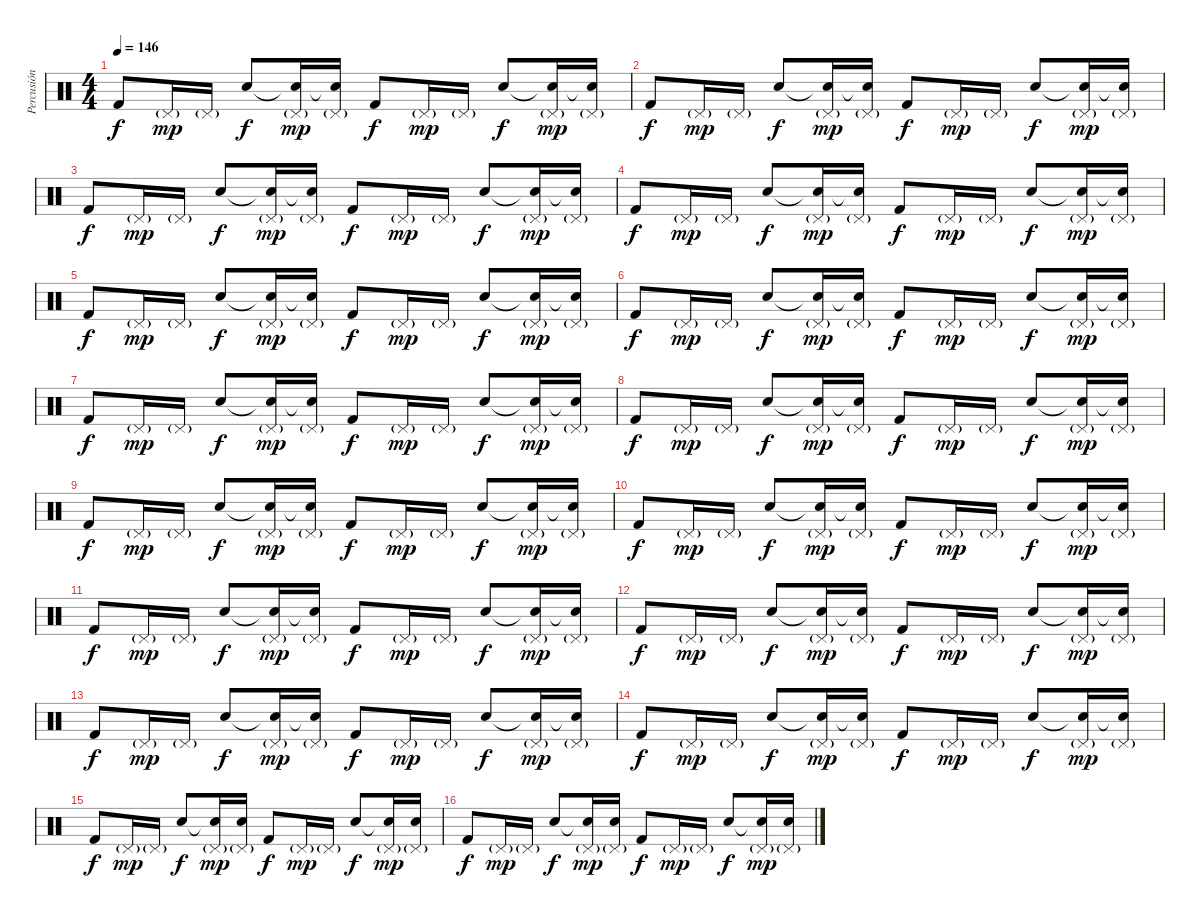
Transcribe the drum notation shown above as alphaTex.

\track ("Percusión" "Percusión") {instrument percussion}
\staff {score}
\articulation defaults
\ts (4 4)
\tempo 146
\clef neutral
\ks c "Kick (hit) 2".8{dy f} "Pedal Hi-Hat (hit)"{g}.16{dy mp} "Pedal Hi-Hat (hit)"{g}.16 "Snare (hit) 2".8{dy f}
("Snare (hit)"{t} "Pedal Hi-Hat (hit)"{g}).16{dy mp} ("Snare (hit)"{t} "Pedal Hi-Hat (hit)"{g}).16 "Kick (hit) 2".8{dy f} "Pedal Hi-Hat (hit)"{g}.16{dy mp} "Pedal Hi-Hat (hit)"{g}.16 "Snare (hit) 2".8{dy f} ("Snare (hit)"{t} "Pedal Hi-Hat (hit)"{g}).16{dy mp} ("Snare (hit)"{t} "Pedal Hi-Hat (hit)"{g}).16 |
"Kick (hit) 2".8{dy f} "Pedal Hi-Hat (hit)"{g}.16{dy mp} "Pedal Hi-Hat (hit)"{g}.16 "Snare (hit) 2".8{dy f} ("Snare (hit)"{t} "Pedal Hi-Hat (hit)"{g}).16{dy mp} ("Snare (hit)"{t} "Pedal Hi-Hat (hit)"{g}).16 "Kick (hit) 2".8{dy f} "Pedal Hi-Hat (hit)"{g}.16{dy mp} "Pedal Hi-Hat (hit)"{g}.16 "Snare (hit) 2".8{dy f} ("Snare (hit)"{t} "Pedal Hi-Hat (hit)"{g}).16{dy mp} ("Snare (hit)"{t} "Pedal Hi-Hat (hit)"{g}).16 |
"Kick (hit) 2".8{dy f} "Pedal Hi-Hat (hit)"{g}.16{dy mp} "Pedal Hi-Hat (hit)"{g}.16 "Snare (hit) 2".8{dy f} ("Snare (hit)"{t} "Pedal Hi-Hat (hit)"{g}).16{dy mp} ("Snare (hit)"{t} "Pedal Hi-Hat (hit)"{g}).16 "Kick (hit) 2".8{dy f} "Pedal Hi-Hat (hit)"{g}.16{dy mp} "Pedal Hi-Hat (hit)"{g}.16 "Snare (hit) 2".8{dy f} ("Snare (hit)"{t} "Pedal Hi-Hat (hit)"{g}).16{dy mp} ("Snare (hit)"{t} "Pedal Hi-Hat (hit)"{g}).16 |
"Kick (hit) 2".8{dy f} "Pedal Hi-Hat (hit)"{g}.16{dy mp} "Pedal Hi-Hat (hit)"{g}.16 "Snare (hit) 2".8{dy f} ("Snare (hit)"{t} "Pedal Hi-Hat (hit)"{g}).16{dy mp} ("Snare (hit)"{t} "Pedal Hi-Hat (hit)"{g}).16 "Kick (hit) 2".8{dy f} "Pedal Hi-Hat (hit)"{g}.16{dy mp} "Pedal Hi-Hat (hit)"{g}.16 "Snare (hit) 2".8{dy f} ("Snare (hit)"{t} "Pedal Hi-Hat (hit)"{g}).16{dy mp} ("Snare (hit)"{t} "Pedal Hi-Hat (hit)"{g}).16 |
"Kick (hit) 2".8{dy f} "Pedal Hi-Hat (hit)"{g}.16{dy mp} "Pedal Hi-Hat (hit)"{g}.16 "Snare (hit) 2".8{dy f} ("Snare (hit)"{t} "Pedal Hi-Hat (hit)"{g}).16{dy mp} ("Snare (hit)"{t} "Pedal Hi-Hat (hit)"{g}).16 "Kick (hit) 2".8{dy f} "Pedal Hi-Hat (hit)"{g}.16{dy mp} "Pedal Hi-Hat (hit)"{g}.16 "Snare (hit) 2".8{dy f} ("Snare (hit)"{t} "Pedal Hi-Hat (hit)"{g}).16{dy mp} ("Snare (hit)"{t} "Pedal Hi-Hat (hit)"{g}).16 |
"Kick (hit) 2".8{dy f} "Pedal Hi-Hat (hit)"{g}.16{dy mp} "Pedal Hi-Hat (hit)"{g}.16 "Snare (hit) 2".8{dy f} ("Snare (hit)"{t} "Pedal Hi-Hat (hit)"{g}).16{dy mp} ("Snare (hit)"{t} "Pedal Hi-Hat (hit)"{g}).16 "Kick (hit) 2".8{dy f} "Pedal Hi-Hat (hit)"{g}.16{dy mp} "Pedal Hi-Hat (hit)"{g}.16 "Snare (hit) 2".8{dy f} ("Snare (hit)"{t} "Pedal Hi-Hat (hit)"{g}).16{dy mp} ("Snare (hit)"{t} "Pedal Hi-Hat (hit)"{g}).16 |
"Kick (hit) 2".8{dy f} "Pedal Hi-Hat (hit)"{g}.16{dy mp} "Pedal Hi-Hat (hit)"{g}.16 "Snare (hit) 2".8{dy f} ("Snare (hit)"{t} "Pedal Hi-Hat (hit)"{g}).16{dy mp} ("Snare (hit)"{t} "Pedal Hi-Hat (hit)"{g}).16 "Kick (hit) 2".8{dy f} "Pedal Hi-Hat (hit)"{g}.16{dy mp} "Pedal Hi-Hat (hit)"{g}.16 "Snare (hit) 2".8{dy f} ("Snare (hit)"{t} "Pedal Hi-Hat (hit)"{g}).16{dy mp} ("Snare (hit)"{t} "Pedal Hi-Hat (hit)"{g}).16 |
"Kick (hit) 2".8{dy f} "Pedal Hi-Hat (hit)"{g}.16{dy mp} "Pedal Hi-Hat (hit)"{g}.16 "Snare (hit) 2".8{dy f} ("Snare (hit)"{t} "Pedal Hi-Hat (hit)"{g}).16{dy mp} ("Snare (hit)"{t} "Pedal Hi-Hat (hit)"{g}).16 "Kick (hit) 2".8{dy f} "Pedal Hi-Hat (hit)"{g}.16{dy mp} "Pedal Hi-Hat (hit)"{g}.16 "Snare (hit) 2".8{dy f} ("Snare (hit)"{t} "Pedal Hi-Hat (hit)"{g}).16{dy mp} ("Snare (hit)"{t} "Pedal Hi-Hat (hit)"{g}).16 |
"Kick (hit) 2".8{dy f} "Pedal Hi-Hat (hit)"{g}.16{dy mp} "Pedal Hi-Hat (hit)"{g}.16 "Snare (hit) 2".8{dy f} ("Snare (hit)"{t} "Pedal Hi-Hat (hit)"{g}).16{dy mp} ("Snare (hit)"{t} "Pedal Hi-Hat (hit)"{g}).16 "Kick (hit) 2".8{dy f} "Pedal Hi-Hat (hit)"{g}.16{dy mp} "Pedal Hi-Hat (hit)"{g}.16 "Snare (hit) 2".8{dy f} ("Snare (hit)"{t} "Pedal Hi-Hat (hit)"{g}).16{dy mp} ("Snare (hit)"{t} "Pedal Hi-Hat (hit)"{g}).16 |
"Kick (hit) 2".8{dy f} "Pedal Hi-Hat (hit)"{g}.16{dy mp} "Pedal Hi-Hat (hit)"{g}.16 "Snare (hit) 2".8{dy f} ("Snare (hit)"{t} "Pedal Hi-Hat (hit)"{g}).16{dy mp} ("Snare (hit)"{t} "Pedal Hi-Hat (hit)"{g}).16 "Kick (hit) 2".8{dy f} "Pedal Hi-Hat (hit)"{g}.16{dy mp} "Pedal Hi-Hat (hit)"{g}.16 "Snare (hit) 2".8{dy f} ("Snare (hit)"{t} "Pedal Hi-Hat (hit)"{g}).16{dy mp} ("Snare (hit)"{t} "Pedal Hi-Hat (hit)"{g}).16 |
"Kick (hit) 2".8{dy f} "Pedal Hi-Hat (hit)"{g}.16{dy mp} "Pedal Hi-Hat (hit)"{g}.16 "Snare (hit) 2".8{dy f} ("Snare (hit)"{t} "Pedal Hi-Hat (hit)"{g}).16{dy mp} ("Snare (hit)"{t} "Pedal Hi-Hat (hit)"{g}).16 "Kick (hit) 2".8{dy f} "Pedal Hi-Hat (hit)"{g}.16{dy mp} "Pedal Hi-Hat (hit)"{g}.16 "Snare (hit) 2".8{dy f} ("Snare (hit)"{t} "Pedal Hi-Hat (hit)"{g}).16{dy mp} ("Snare (hit)"{t} "Pedal Hi-Hat (hit)"{g}).16 |
"Kick (hit) 2".8{dy f} "Pedal Hi-Hat (hit)"{g}.16{dy mp} "Pedal Hi-Hat (hit)"{g}.16 "Snare (hit) 2".8{dy f} ("Snare (hit)"{t} "Pedal Hi-Hat (hit)"{g}).16{dy mp} ("Snare (hit)"{t} "Pedal Hi-Hat (hit)"{g}).16 "Kick (hit) 2".8{dy f} "Pedal Hi-Hat (hit)"{g}.16{dy mp} "Pedal Hi-Hat (hit)"{g}.16 "Snare (hit) 2".8{dy f} ("Snare (hit)"{t} "Pedal Hi-Hat (hit)"{g}).16{dy mp} ("Snare (hit)"{t} "Pedal Hi-Hat (hit)"{g}).16 |
"Kick (hit) 2".8{dy f} "Pedal Hi-Hat (hit)"{g}.16{dy mp} "Pedal Hi-Hat (hit)"{g}.16 "Snare (hit) 2".8{dy f} ("Snare (hit)"{t} "Pedal Hi-Hat (hit)"{g}).16{dy mp} ("Snare (hit)"{t} "Pedal Hi-Hat (hit)"{g}).16 "Kick (hit) 2".8{dy f} "Pedal Hi-Hat (hit)"{g}.16{dy mp} "Pedal Hi-Hat (hit)"{g}.16 "Snare (hit) 2".8{dy f} ("Snare (hit)"{t} "Pedal Hi-Hat (hit)"{g}).16{dy mp} ("Snare (hit)"{t} "Pedal Hi-Hat (hit)"{g}).16 |
"Kick (hit) 2".8{dy f} "Pedal Hi-Hat (hit)"{g}.16{dy mp} "Pedal Hi-Hat (hit)"{g}.16 "Snare (hit) 2".8{dy f} ("Snare (hit)"{t} "Pedal Hi-Hat (hit)"{g}).16{dy mp} ("Snare (hit)"{t} "Pedal Hi-Hat (hit)"{g}).16 "Kick (hit) 2".8{dy f} "Pedal Hi-Hat (hit)"{g}.16{dy mp} "Pedal Hi-Hat (hit)"{g}.16 "Snare (hit) 2".8{dy f} ("Snare (hit)"{t} "Pedal Hi-Hat (hit)"{g}).16{dy mp} ("Snare (hit)"{t} "Pedal Hi-Hat (hit)"{g}).16 |
"Kick (hit) 2".8{dy f} "Pedal Hi-Hat (hit)"{g}.16{dy mp} "Pedal Hi-Hat (hit)"{g}.16 "Snare (hit) 2".8{dy f} ("Snare (hit)"{t} "Pedal Hi-Hat (hit)"{g}).16{dy mp} ("Snare (hit)"{t} "Pedal Hi-Hat (hit)"{g}).16 "Kick (hit) 2".8{dy f} "Pedal Hi-Hat (hit)"{g}.16{dy mp} "Pedal Hi-Hat (hit)"{g}.16 "Snare (hit) 2".8{dy f} ("Snare (hit)"{t} "Pedal Hi-Hat (hit)"{g}).16{dy mp} ("Snare (hit)"{t} "Pedal Hi-Hat (hit)"{g}).16 |
"Kick (hit) 2".8{dy f} "Pedal Hi-Hat (hit)"{g}.16{dy mp} "Pedal Hi-Hat (hit)"{g}.16 "Snare (hit) 2".8{dy f} ("Snare (hit)"{t} "Pedal Hi-Hat (hit)"{g}).16{dy mp} ("Snare (hit)"{t} "Pedal Hi-Hat (hit)"{g}).16 "Kick (hit) 2".8{dy f} "Pedal Hi-Hat (hit)"{g}.16{dy mp} "Pedal Hi-Hat (hit)"{g}.16 "Snare (hit) 2".8{dy f} ("Snare (hit)"{t} "Pedal Hi-Hat (hit)"{g}).16{dy mp} ("Snare (hit)"{t} "Pedal Hi-Hat (hit)"{g}).16
